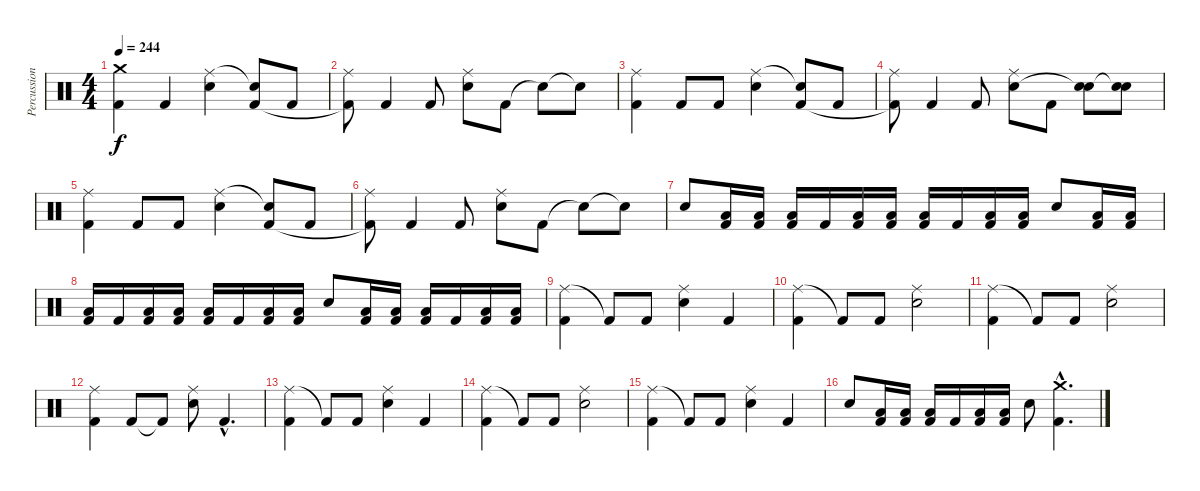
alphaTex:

\track ("Percussions" "Percussion") {instrument percussion}
\staff {score}
\articulation defaults
\ts (4 4)
\tempo 244
\clef neutral
\ks c
("Crash medium (hit)" "Kick (hit) 2").4{dy f} "Kick (hit) 2".4 ("Ride (middle)" "Electric Snare (hit)").4 ("Snare (hit)"{t} "Kick (hit) 2").8 "Kick (hit) 2".8 |
("Ride (middle)" "Kick (hit) 2"{t}).8 "Kick (hit) 2".4 "Kick (hit) 2".8 ("Ride (middle)" "Electric Snare (hit)").8 "Kick (hit) 2".8 "Snare (hit)"{t}.8 "Snare (hit)"{t}.8 |
("Ride (middle)" "Kick (hit) 2").4 "Kick (hit) 2".8 "Kick (hit) 2".8 ("Ride (middle)" "Electric Snare (hit)").4 ("Snare (hit)"{t} "Kick (hit) 2").8 "Kick (hit) 2".8 |
("Ride (middle)" "Kick (hit) 2"{t}).8 "Kick (hit) 2".4 "Kick (hit) 2".8 ("Ride (middle)" "Electric Snare (hit)").8 "Kick (hit) 2".8 ("Electric Snare (hit)" "Snare (hit)"{t}).8 ("Electric Snare (hit)" "Snare (hit)"{t}).8 |
("Ride (middle)" "Kick (hit) 2").4 "Kick (hit) 2".8 "Kick (hit) 2".8 ("Ride (middle)" "Electric Snare (hit)").4 ("Snare (hit)"{t} "Kick (hit) 2").8 "Kick (hit) 2".8 |
("Ride (middle)" "Kick (hit) 2"{t}).8 "Kick (hit) 2".4 "Kick (hit) 2".8 ("Ride (middle)" "Electric Snare (hit)").8 "Kick (hit) 2".8 "Snare (hit)"{t}.8 "Snare (hit)"{t}.8 |
"Electric Snare (hit)".8 ("Low Floor Tom (hit)" "Kick (hit) 2").16 ("Low Floor Tom (hit)" "Kick (hit) 2").16 ("Low Floor Tom (hit)" "Kick (hit) 2").16 "Kick (hit) 2".16 ("Low Floor Tom (hit)" "Kick (hit) 2").16 ("Low Floor Tom (hit)" "Kick (hit) 2").16 ("Low Floor Tom (hit)" "Kick (hit) 2").16 "Kick (hit) 2".16 ("Low Floor Tom (hit)" "Kick (hit) 2").16 ("Low Floor Tom (hit)" "Kick (hit) 2").16 "Electric Snare (hit)".8 ("Low Floor Tom (hit)" "Kick (hit) 2").16 ("Low Floor Tom (hit)" "Kick (hit) 2").16 |
("Low Floor Tom (hit)" "Kick (hit) 2").16 "Kick (hit) 2".16 ("Low Floor Tom (hit)" "Kick (hit) 2").16 ("Low Floor Tom (hit)" "Kick (hit) 2").16 ("Low Floor Tom (hit)" "Kick (hit) 2").16 "Kick (hit) 2".16 ("Low Floor Tom (hit)" "Kick (hit) 2").16 ("Low Floor Tom (hit)" "Kick (hit) 2").16 "Electric Snare (hit)".8 ("Low Floor Tom (hit)" "Kick (hit) 2").16 ("Low Floor Tom (hit)" "Kick (hit) 2").16 ("Low Floor Tom (hit)" "Kick (hit) 2").16 "Kick (hit) 2".16 ("Low Floor Tom (hit)" "Kick (hit) 2").16 ("Low Floor Tom (hit)" "Kick (hit) 2").16 |
("Ride (middle)" "Kick (hit) 2").4 "Kick (hit) 2"{t}.8 "Kick (hit) 2".8 ("Ride (middle)" "Electric Snare (hit)").4 "Kick (hit) 2".4 |
("Ride (middle)" "Kick (hit) 2").4 "Kick (hit) 2"{t}.8 "Kick (hit) 2".8 ("Ride (middle)" "Electric Snare (hit)").2 |
("Ride (middle)" "Kick (hit) 2").4 "Kick (hit) 2"{t}.8 "Kick (hit) 2".8 ("Ride (middle)" "Electric Snare (hit)").2 |
("Ride (middle)" "Kick (hit) 2").4 "Kick (hit) 2".8 "Kick (hit) 2"{t}.8 ("Ride (middle)" "Electric Snare (hit)").8 "Kick (hit) 2"{hac}.4{d} |
("Ride (middle)" "Kick (hit) 2").4 "Kick (hit) 2"{t}.8 "Kick (hit) 2".8 ("Ride (middle)" "Electric Snare (hit)").4 "Kick (hit) 2".4 |
("Ride (middle)" "Kick (hit) 2").4 "Kick (hit) 2"{t}.8 "Kick (hit) 2".8 ("Ride (middle)" "Electric Snare (hit)").2 |
("Ride (middle)" "Kick (hit) 2").4 "Kick (hit) 2"{t}.8 "Kick (hit) 2".8 ("Ride (middle)" "Electric Snare (hit)").4 "Kick (hit) 2".4 |
"Electric Snare (hit)".8 ("Low Floor Tom (hit)" "Kick (hit) 2").16 ("Low Floor Tom (hit)" "Kick (hit) 2").16 ("Low Floor Tom (hit)" "Kick (hit) 2").16 "Kick (hit) 2".16 ("Low Floor Tom (hit)" "Kick (hit) 2").16 ("Low Floor Tom (hit)" "Kick (hit) 2").16 "Electric Snare (hit)".8 ("Crash medium (hit)"{hac} "Kick (hit) 2"{hac}).4{d}
